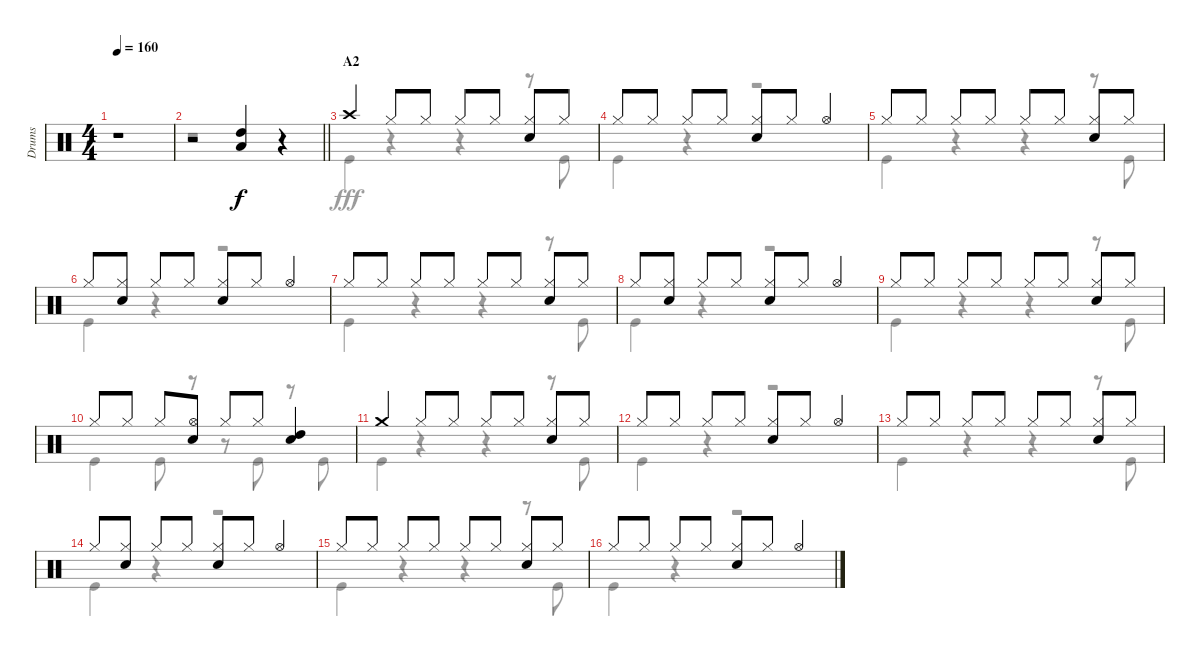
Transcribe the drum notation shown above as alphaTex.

\track ("Drums" "Drums") {instrument percussion}
\staff {score}
\articulation defaults
\voice
\ts (4 4)
\tempo 160
\clef neutral
\ks c
r.1{dy f} |
\barLineRight lightlight
r.2 ("High Tom (hit)" "Low Tom (hit)").4 r.4 |
\section ("" "A2")
"Crash high (hit)".4 "Hi-Hat (closed)".8 "Hi-Hat (closed)".8 "Hi-Hat (closed)".8 "Hi-Hat (closed)".8 ("Hi-Hat (closed)" "Snare (hit) 2").8 "Hi-Hat (closed)".8 |
"Hi-Hat (closed)".8 "Hi-Hat (closed)".8 "Hi-Hat (closed)".8 "Hi-Hat (closed)".8 ("Hi-Hat (closed)" "Snare (hit) 2").8 "Hi-Hat (closed)".8 "Hi-Hat (open)".4 |
"Hi-Hat (closed)".8 "Hi-Hat (closed)".8 "Hi-Hat (closed)".8 "Hi-Hat (closed)".8 "Hi-Hat (closed)".8 "Hi-Hat (closed)".8 ("Hi-Hat (closed)" "Snare (hit) 2").8 "Hi-Hat (closed)".8 |
"Hi-Hat (closed)".8 ("Hi-Hat (closed)" "Snare (hit) 2").8 "Hi-Hat (closed)".8 "Hi-Hat (closed)".8 ("Hi-Hat (closed)" "Snare (hit) 2").8 "Hi-Hat (closed)".8 "Hi-Hat (open)".4 |
"Hi-Hat (closed)".8 "Hi-Hat (closed)".8 "Hi-Hat (closed)".8 "Hi-Hat (closed)".8 "Hi-Hat (closed)".8 "Hi-Hat (closed)".8 ("Hi-Hat (closed)" "Snare (hit) 2").8 "Hi-Hat (closed)".8 |
"Hi-Hat (closed)".8 ("Hi-Hat (closed)" "Snare (hit) 2").8 "Hi-Hat (closed)".8 "Hi-Hat (closed)".8 ("Hi-Hat (closed)" "Snare (hit) 2").8 "Hi-Hat (closed)".8 "Hi-Hat (open)".4 |
"Hi-Hat (closed)".8 "Hi-Hat (closed)".8 "Hi-Hat (closed)".8 "Hi-Hat (closed)".8 "Hi-Hat (closed)".8 "Hi-Hat (closed)".8 ("Hi-Hat (closed)" "Snare (hit) 2").8 "Hi-Hat (closed)".8 |
"Hi-Hat (closed)".8 "Hi-Hat (closed)".8 "Hi-Hat (closed)".8 ("Hi-Hat (open)" "Snare (hit) 2").8 "Hi-Hat (closed)".8 "Hi-Hat (closed)".8 ("High Tom (hit)" "Snare (hit) 2").4 |
"Crash medium (hit)".4 "Hi-Hat (closed)".8 "Hi-Hat (closed)".8 "Hi-Hat (closed)".8 "Hi-Hat (closed)".8 ("Hi-Hat (closed)" "Snare (hit) 2").8 "Hi-Hat (closed)".8 |
"Hi-Hat (closed)".8 "Hi-Hat (closed)".8 "Hi-Hat (closed)".8 "Hi-Hat (closed)".8 ("Hi-Hat (closed)" "Snare (hit) 2").8 "Hi-Hat (closed)".8 "Hi-Hat (open)".4 |
"Hi-Hat (closed)".8 "Hi-Hat (closed)".8 "Hi-Hat (closed)".8 "Hi-Hat (closed)".8 "Hi-Hat (closed)".8 "Hi-Hat (closed)".8 ("Hi-Hat (closed)" "Snare (hit) 2").8 "Hi-Hat (closed)".8 |
"Hi-Hat (closed)".8 ("Hi-Hat (closed)" "Snare (hit) 2").8 "Hi-Hat (closed)".8 "Hi-Hat (closed)".8 ("Hi-Hat (closed)" "Snare (hit) 2").8 "Hi-Hat (closed)".8 "Hi-Hat (open)".4 |
"Hi-Hat (closed)".8 "Hi-Hat (closed)".8 "Hi-Hat (closed)".8 "Hi-Hat (closed)".8 "Hi-Hat (closed)".8 "Hi-Hat (closed)".8 ("Hi-Hat (closed)" "Snare (hit) 2").8 "Hi-Hat (closed)".8 |
"Hi-Hat (closed)".8 "Hi-Hat (closed)".8 "Hi-Hat (closed)".8 "Hi-Hat (closed)".8 ("Hi-Hat (closed)" "Snare (hit) 2").8 "Hi-Hat (closed)".8 "Hi-Hat (open)".4
\voice
\clef neutral
\ottava regular
\simile none
\ks c
r.1{dy fff} |
\barLineRight lightlight
r.1 |
"Kick (hit)".4 r.4 r.4 r.8 "Kick (hit)".8 |
"Kick (hit)".4 r.4 r.2 |
"Kick (hit)".4 r.4 r.4 r.8 "Kick (hit)".8 |
"Kick (hit)".4 r.4 r.2 |
"Kick (hit)".4 r.4 r.4 r.8 "Kick (hit)".8 |
"Kick (hit)".4 r.4 r.2 |
"Kick (hit)".4 r.4 r.4 r.8 "Kick (hit)".8 |
"Kick (hit)".4 "Kick (hit)".8 r.8 r.8 "Kick (hit)".8 r.8 "Kick (hit)".8 |
"Kick (hit)".4 r.4 r.4 r.8 "Kick (hit)".8 |
"Kick (hit)".4 r.4 r.2 |
"Kick (hit)".4 r.4 r.4 r.8 "Kick (hit)".8 |
"Kick (hit)".4 r.4 r.2 |
"Kick (hit)".4 r.4 r.4 r.8 "Kick (hit)".8 |
"Kick (hit)".4 r.4 r.2
